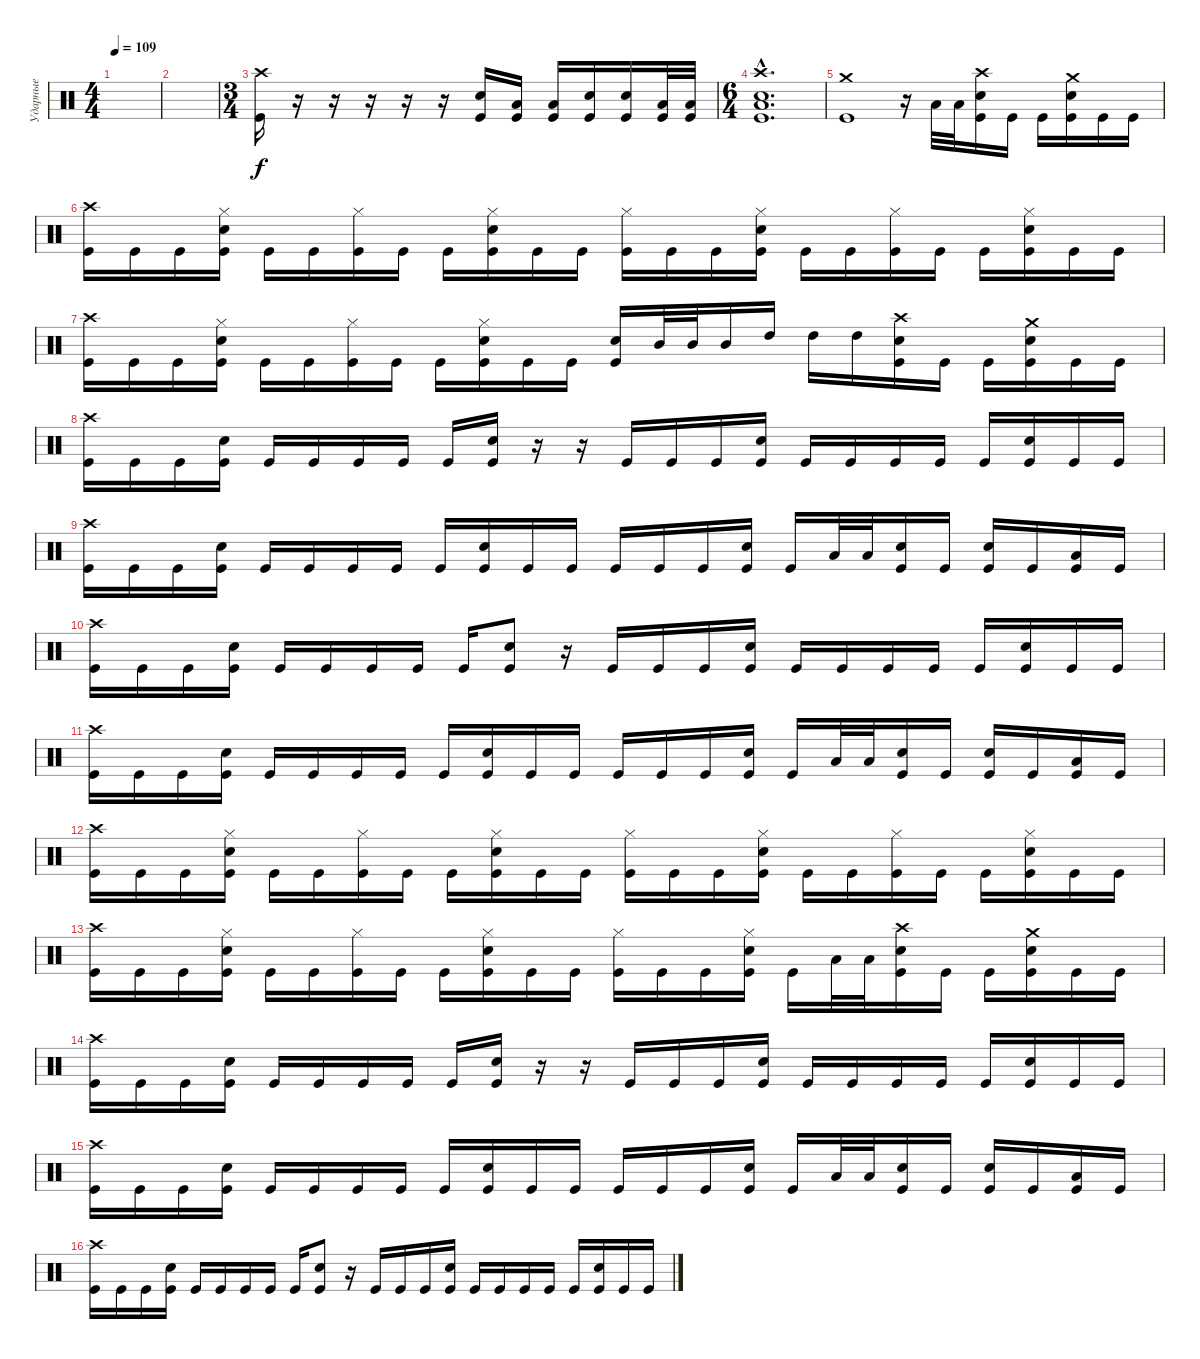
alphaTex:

\track ("Ударные" "Ударные") {instrument percussion}
\staff {score}
\articulation defaults
\ts (4 4)
\tempo 109
\clef neutral
\ks c
|
|
\ts (3 4)
("Crash high (hit)" "Kick (hit)").16 r.16 r.16 r.16 r.16 r.16 ("Electric Snare (hit)" "Kick (hit)").16 ("Low Tom (hit)" "Kick (hit)").16 ("Low Tom (hit)" "Kick (hit)").16 ("Electric Snare (hit)" "Kick (hit)").16 ("Electric Snare (hit)" "Kick (hit)").16 ("Low Tom (hit)" "Kick (hit)").32 ("Low Tom (hit)" "Kick (hit)").32 |
\ts (6 4)
("Crash high (hit)"{hac} "Low Tom (hit)"{hac} "Electric Snare (hit)"{hac} "Kick (hit)"{hac}).1{d} |
("Crash medium (hit)" "Kick (hit)").1 r.16 "Low Tom (hit)".32 "Low Tom (hit)".32 ("Crash high (hit)" "Electric Snare (hit)" "Kick (hit)").16 "Kick (hit)".16 "Kick (hit)".16 ("Crash medium (hit)" "Electric Snare (hit)" "Kick (hit)").16 "Kick (hit)".16 "Kick (hit)".16 |
("Crash high (hit)" "Kick (hit)").16 "Kick (hit)".16 "Kick (hit)".16 ("Hi-Hat (closed)" "Electric Snare (hit)" "Kick (hit)").16 "Kick (hit)".16 "Kick (hit)".16 ("Hi-Hat (closed)" "Kick (hit)").16 "Kick (hit)".16 "Kick (hit)".16 ("Hi-Hat (closed)" "Electric Snare (hit)" "Kick (hit)").16 "Kick (hit)".16 "Kick (hit)".16 ("Hi-Hat (closed)" "Kick (hit)").16 "Kick (hit)".16 "Kick (hit)".16 ("Hi-Hat (closed)" "Electric Snare (hit)" "Kick (hit)").16 "Kick (hit)".16 "Kick (hit)".16 ("Hi-Hat (closed)" "Kick (hit)").16 "Kick (hit)".16 "Kick (hit)".16 ("Hi-Hat (closed)" "Electric Snare (hit)" "Kick (hit)").16 "Kick (hit)".16 "Kick (hit)".16 |
("Crash high (hit)" "Kick (hit)").16 "Kick (hit)".16 "Kick (hit)".16 ("Hi-Hat (closed)" "Electric Snare (hit)" "Kick (hit)").16 "Kick (hit)".16 "Kick (hit)".16 ("Hi-Hat (closed)" "Kick (hit)").16 "Kick (hit)".16 "Kick (hit)".16 ("Hi-Hat (closed)" "Electric Snare (hit)" "Kick (hit)").16 "Kick (hit)".16 "Kick (hit)".16 ("Electric Snare (hit)" "Kick (hit)").16 "Mid Tom (hit)".32 "Mid Tom (hit)".32 "Mid Tom (hit)".16 "High Tom (hit)".16 "High Tom (hit)".16 "High Tom (hit)".16 ("Crash high (hit)" "Electric Snare (hit)" "Kick (hit)").16 "Kick (hit)".16 "Kick (hit)".16 ("Crash medium (hit)" "Electric Snare (hit)" "Kick (hit)").16 "Kick (hit)".16 "Kick (hit)".16 |
("Crash high (hit)" "Kick (hit)").16 "Kick (hit)".16 "Kick (hit)".16 ("Electric Snare (hit)" "Kick (hit)").16 "Kick (hit)".16 "Kick (hit)".16 "Kick (hit)".16 "Kick (hit)".16 "Kick (hit)".16 ("Electric Snare (hit)" "Kick (hit)").16 r.16 r.16 "Kick (hit)".16 "Kick (hit)".16 "Kick (hit)".16 ("Electric Snare (hit)" "Kick (hit)").16 "Kick (hit)".16 "Kick (hit)".16 "Kick (hit)".16 "Kick (hit)".16 "Kick (hit)".16 ("Electric Snare (hit)" "Kick (hit)").16 "Kick (hit)".16 "Kick (hit)".16 |
("Crash high (hit)" "Kick (hit)").16 "Kick (hit)".16 "Kick (hit)".16 ("Electric Snare (hit)" "Kick (hit)").16 "Kick (hit)".16 "Kick (hit)".16 "Kick (hit)".16 "Kick (hit)".16 "Kick (hit)".16 ("Electric Snare (hit)" "Kick (hit)").16 "Kick (hit)".16 "Kick (hit)".16 "Kick (hit)".16 "Kick (hit)".16 "Kick (hit)".16 ("Electric Snare (hit)" "Kick (hit)").16 "Kick (hit)".16 "Low Tom (hit)".32 "Low Tom (hit)".32 ("Electric Snare (hit)" "Kick (hit)").16 "Kick (hit)".16 ("Electric Snare (hit)" "Kick (hit)").16 "Kick (hit)".16 ("Low Tom (hit)" "Kick (hit)").16 "Kick (hit)".16 |
("Crash high (hit)" "Kick (hit)").16 "Kick (hit)".16 "Kick (hit)".16 ("Electric Snare (hit)" "Kick (hit)").16 "Kick (hit)".16 "Kick (hit)".16 "Kick (hit)".16 "Kick (hit)".16 "Kick (hit)".16 ("Electric Snare (hit)" "Kick (hit)").8 r.16 "Kick (hit)".16 "Kick (hit)".16 "Kick (hit)".16 ("Electric Snare (hit)" "Kick (hit)").16 "Kick (hit)".16 "Kick (hit)".16 "Kick (hit)".16 "Kick (hit)".16 "Kick (hit)".16 ("Electric Snare (hit)" "Kick (hit)").16 "Kick (hit)".16 "Kick (hit)".16 |
("Crash high (hit)" "Kick (hit)").16 "Kick (hit)".16 "Kick (hit)".16 ("Electric Snare (hit)" "Kick (hit)").16 "Kick (hit)".16 "Kick (hit)".16 "Kick (hit)".16 "Kick (hit)".16 "Kick (hit)".16 ("Electric Snare (hit)" "Kick (hit)").16 "Kick (hit)".16 "Kick (hit)".16 "Kick (hit)".16 "Kick (hit)".16 "Kick (hit)".16 ("Electric Snare (hit)" "Kick (hit)").16 "Kick (hit)".16 "Low Tom (hit)".32 "Low Tom (hit)".32 ("Electric Snare (hit)" "Kick (hit)").16 "Kick (hit)".16 ("Electric Snare (hit)" "Kick (hit)").16 "Kick (hit)".16 ("Low Tom (hit)" "Kick (hit)").16 "Kick (hit)".16 |
("Crash high (hit)" "Kick (hit)").16 "Kick (hit)".16 "Kick (hit)".16 ("Hi-Hat (closed)" "Electric Snare (hit)" "Kick (hit)").16 "Kick (hit)".16 "Kick (hit)".16 ("Hi-Hat (closed)" "Kick (hit)").16 "Kick (hit)".16 "Kick (hit)".16 ("Hi-Hat (closed)" "Electric Snare (hit)" "Kick (hit)").16 "Kick (hit)".16 "Kick (hit)".16 ("Hi-Hat (closed)" "Kick (hit)").16 "Kick (hit)".16 "Kick (hit)".16 ("Hi-Hat (closed)" "Electric Snare (hit)" "Kick (hit)").16 "Kick (hit)".16 "Kick (hit)".16 ("Hi-Hat (closed)" "Kick (hit)").16 "Kick (hit)".16 "Kick (hit)".16 ("Hi-Hat (closed)" "Electric Snare (hit)" "Kick (hit)").16 "Kick (hit)".16 "Kick (hit)".16 |
("Crash high (hit)" "Kick (hit)").16 "Kick (hit)".16 "Kick (hit)".16 ("Hi-Hat (closed)" "Electric Snare (hit)" "Kick (hit)").16 "Kick (hit)".16 "Kick (hit)".16 ("Hi-Hat (closed)" "Kick (hit)").16 "Kick (hit)".16 "Kick (hit)".16 ("Hi-Hat (closed)" "Electric Snare (hit)" "Kick (hit)").16 "Kick (hit)".16 "Kick (hit)".16 ("Hi-Hat (closed)" "Kick (hit)").16 "Kick (hit)".16 "Kick (hit)".16 ("Hi-Hat (closed)" "Electric Snare (hit)" "Kick (hit)").16 "Kick (hit)".16 "Low Tom (hit)".32 "Low Tom (hit)".32 ("Crash high (hit)" "Electric Snare (hit)" "Kick (hit)").16 "Kick (hit)".16 "Kick (hit)".16 ("Crash medium (hit)" "Electric Snare (hit)" "Kick (hit)").16 "Kick (hit)".16 "Kick (hit)".16 |
("Crash high (hit)" "Kick (hit)").16 "Kick (hit)".16 "Kick (hit)".16 ("Electric Snare (hit)" "Kick (hit)").16 "Kick (hit)".16 "Kick (hit)".16 "Kick (hit)".16 "Kick (hit)".16 "Kick (hit)".16 ("Electric Snare (hit)" "Kick (hit)").16 r.16 r.16 "Kick (hit)".16 "Kick (hit)".16 "Kick (hit)".16 ("Electric Snare (hit)" "Kick (hit)").16 "Kick (hit)".16 "Kick (hit)".16 "Kick (hit)".16 "Kick (hit)".16 "Kick (hit)".16 ("Electric Snare (hit)" "Kick (hit)").16 "Kick (hit)".16 "Kick (hit)".16 |
("Crash high (hit)" "Kick (hit)").16 "Kick (hit)".16 "Kick (hit)".16 ("Electric Snare (hit)" "Kick (hit)").16 "Kick (hit)".16 "Kick (hit)".16 "Kick (hit)".16 "Kick (hit)".16 "Kick (hit)".16 ("Electric Snare (hit)" "Kick (hit)").16 "Kick (hit)".16 "Kick (hit)".16 "Kick (hit)".16 "Kick (hit)".16 "Kick (hit)".16 ("Electric Snare (hit)" "Kick (hit)").16 "Kick (hit)".16 "Low Tom (hit)".32 "Low Tom (hit)".32 ("Electric Snare (hit)" "Kick (hit)").16 "Kick (hit)".16 ("Electric Snare (hit)" "Kick (hit)").16 "Kick (hit)".16 ("Low Tom (hit)" "Kick (hit)").16 "Kick (hit)".16 |
("Crash high (hit)" "Kick (hit)").16 "Kick (hit)".16 "Kick (hit)".16 ("Electric Snare (hit)" "Kick (hit)").16 "Kick (hit)".16 "Kick (hit)".16 "Kick (hit)".16 "Kick (hit)".16 "Kick (hit)".16 ("Electric Snare (hit)" "Kick (hit)").8 r.16 "Kick (hit)".16 "Kick (hit)".16 "Kick (hit)".16 ("Electric Snare (hit)" "Kick (hit)").16 "Kick (hit)".16 "Kick (hit)".16 "Kick (hit)".16 "Kick (hit)".16 "Kick (hit)".16 ("Electric Snare (hit)" "Kick (hit)").16 "Kick (hit)".16 "Kick (hit)".16
